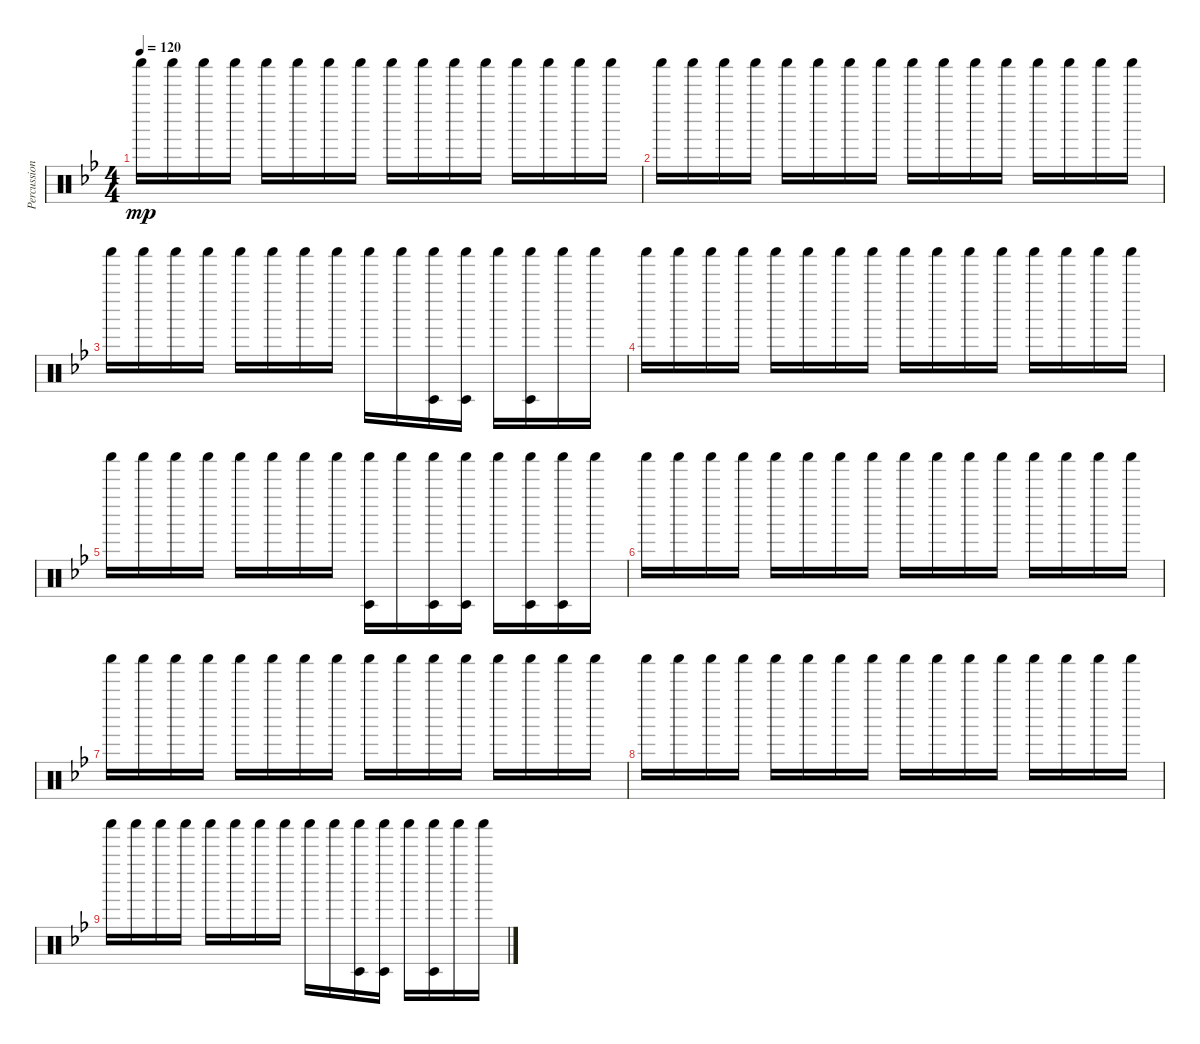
\track ("Percussion" "Percussion") {instrument percussion}
\staff {score}
\articulation defaults
\ts (4 4)
\tempo 120
\clef neutral
\ks bb "Shaker (hit)".16{dy mp} "Shaker (hit)".16 "Shaker (hit)".16 "Shaker (hit)".16 "Shaker (hit)".16 "Shaker (hit)".16 "Shaker (hit)".16 "Shaker (hit)".16 "Shaker (hit)".16 "Shaker (hit)".16 "Shaker (hit)".16 "Shaker (hit)".16 "Shaker (hit)".16 "Shaker (hit)".16 "Shaker (hit)".16 "Shaker (hit)".16
|
"Shaker (hit)".16 "Shaker (hit)".16 "Shaker (hit)".16 "Shaker (hit)".16 "Shaker (hit)".16 "Shaker (hit)".16 "Shaker (hit)".16 "Shaker (hit)".16 "Shaker (hit)".16 "Shaker (hit)".16 "Shaker (hit)".16 "Shaker (hit)".16 "Shaker (hit)".16 "Shaker (hit)".16 "Shaker (hit)".16 "Shaker (hit)".16 |
"Shaker (hit)".16 "Shaker (hit)".16 "Shaker (hit)".16 "Shaker (hit)".16 "Shaker (hit)".16 "Shaker (hit)".16 "Shaker (hit)".16 "Shaker (hit)".16 "Shaker (hit)".16 "Shaker (hit)".16 ("Shaker (hit)" "Timbale low (hit)").16 ("Shaker (hit)" "Timbale low (hit)").16 "Shaker (hit)".16 ("Shaker (hit)" "Timbale low (hit)").16 "Shaker (hit)".16 "Shaker (hit)".16 |
"Shaker (hit)".16 "Shaker (hit)".16 "Shaker (hit)".16 "Shaker (hit)".16 "Shaker (hit)".16 "Shaker (hit)".16 "Shaker (hit)".16 "Shaker (hit)".16 "Shaker (hit)".16 "Shaker (hit)".16 "Shaker (hit)".16 "Shaker (hit)".16 "Shaker (hit)".16 "Shaker (hit)".16 "Shaker (hit)".16 "Shaker (hit)".16 |
"Shaker (hit)".16 "Shaker (hit)".16 "Shaker (hit)".16 "Shaker (hit)".16 "Shaker (hit)".16 "Shaker (hit)".16 "Shaker (hit)".16 "Shaker (hit)".16 ("Shaker (hit)" "Timbale low (hit)").16 "Shaker (hit)".16 ("Shaker (hit)" "Timbale low (hit)").16 ("Shaker (hit)" "Timbale low (hit)").16 "Shaker (hit)".16 ("Shaker (hit)" "Timbale low (hit)").16 ("Shaker (hit)" "Timbale low (hit)").16 "Shaker (hit)".16 |
"Shaker (hit)".16 "Shaker (hit)".16 "Shaker (hit)".16 "Shaker (hit)".16 "Shaker (hit)".16 "Shaker (hit)".16 "Shaker (hit)".16 "Shaker (hit)".16 "Shaker (hit)".16 "Shaker (hit)".16 "Shaker (hit)".16 "Shaker (hit)".16 "Shaker (hit)".16 "Shaker (hit)".16 "Shaker (hit)".16 "Shaker (hit)".16 |
"Shaker (hit)".16 "Shaker (hit)".16 "Shaker (hit)".16 "Shaker (hit)".16 "Shaker (hit)".16 "Shaker (hit)".16 "Shaker (hit)".16 "Shaker (hit)".16 "Shaker (hit)".16 "Shaker (hit)".16 "Shaker (hit)".16 "Shaker (hit)".16 "Shaker (hit)".16 "Shaker (hit)".16 "Shaker (hit)".16 "Shaker (hit)".16 |
"Shaker (hit)".16 "Shaker (hit)".16 "Shaker (hit)".16 "Shaker (hit)".16 "Shaker (hit)".16 "Shaker (hit)".16 "Shaker (hit)".16 "Shaker (hit)".16 "Shaker (hit)".16 "Shaker (hit)".16 "Shaker (hit)".16 "Shaker (hit)".16 "Shaker (hit)".16 "Shaker (hit)".16 "Shaker (hit)".16 "Shaker (hit)".16 |
"Shaker (hit)".16 "Shaker (hit)".16 "Shaker (hit)".16 "Shaker (hit)".16 "Shaker (hit)".16 "Shaker (hit)".16 "Shaker (hit)".16 "Shaker (hit)".16 "Shaker (hit)".16 "Shaker (hit)".16 ("Shaker (hit)" "Timbale low (hit)").16 ("Shaker (hit)" "Timbale low (hit)").16 "Shaker (hit)".16 ("Shaker (hit)" "Timbale low (hit)").16 "Shaker (hit)".16 "Shaker (hit)".16
